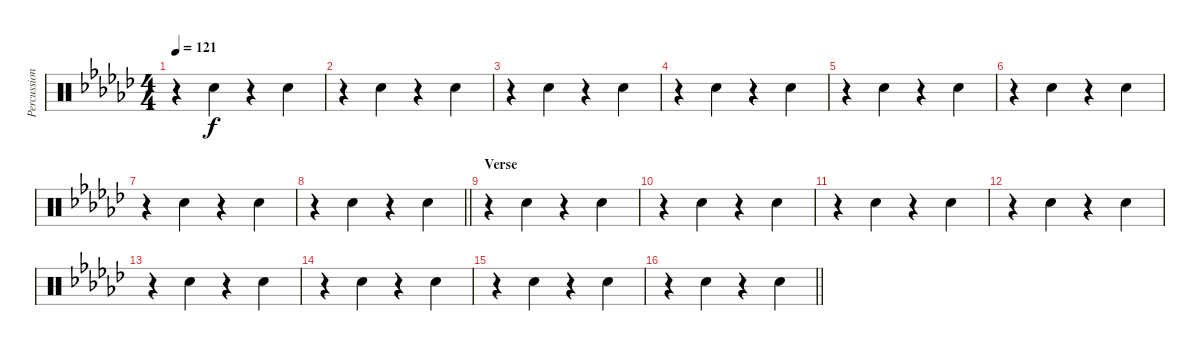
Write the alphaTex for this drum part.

\track ("Percussion" "Percussion") {instrument percussion}
\staff {score}
\articulation defaults
\ts (4 4)
\tempo 121
\clef neutral
\ks ebminor
r.4{dy f} "Hand Clap (hit)".4 r.4 "Hand Clap (hit)".4 |
r.4 "Hand Clap (hit)".4 r.4 "Hand Clap (hit)".4 |
r.4 "Hand Clap (hit)".4 r.4 "Hand Clap (hit)".4 |
r.4 "Hand Clap (hit)".4 r.4 "Hand Clap (hit)".4 |
r.4 "Hand Clap (hit)".4 r.4 "Hand Clap (hit)".4 |
r.4 "Hand Clap (hit)".4 r.4 "Hand Clap (hit)".4 |
r.4 "Hand Clap (hit)".4 r.4 "Hand Clap (hit)".4 |
\barLineRight lightlight
r.4 "Hand Clap (hit)".4 r.4 "Hand Clap (hit)".4 |
\section ("" "Verse")
r.4 "Hand Clap (hit)".4 r.4 "Hand Clap (hit)".4 |
r.4 "Hand Clap (hit)".4 r.4 "Hand Clap (hit)".4 |
r.4 "Hand Clap (hit)".4 r.4 "Hand Clap (hit)".4 |
r.4 "Hand Clap (hit)".4 r.4 "Hand Clap (hit)".4 |
r.4 "Hand Clap (hit)".4 r.4 "Hand Clap (hit)".4 |
r.4 "Hand Clap (hit)".4 r.4 "Hand Clap (hit)".4 |
r.4 "Hand Clap (hit)".4 r.4 "Hand Clap (hit)".4 |
\barLineRight lightlight
r.4 "Hand Clap (hit)".4 r.4 "Hand Clap (hit)".4
